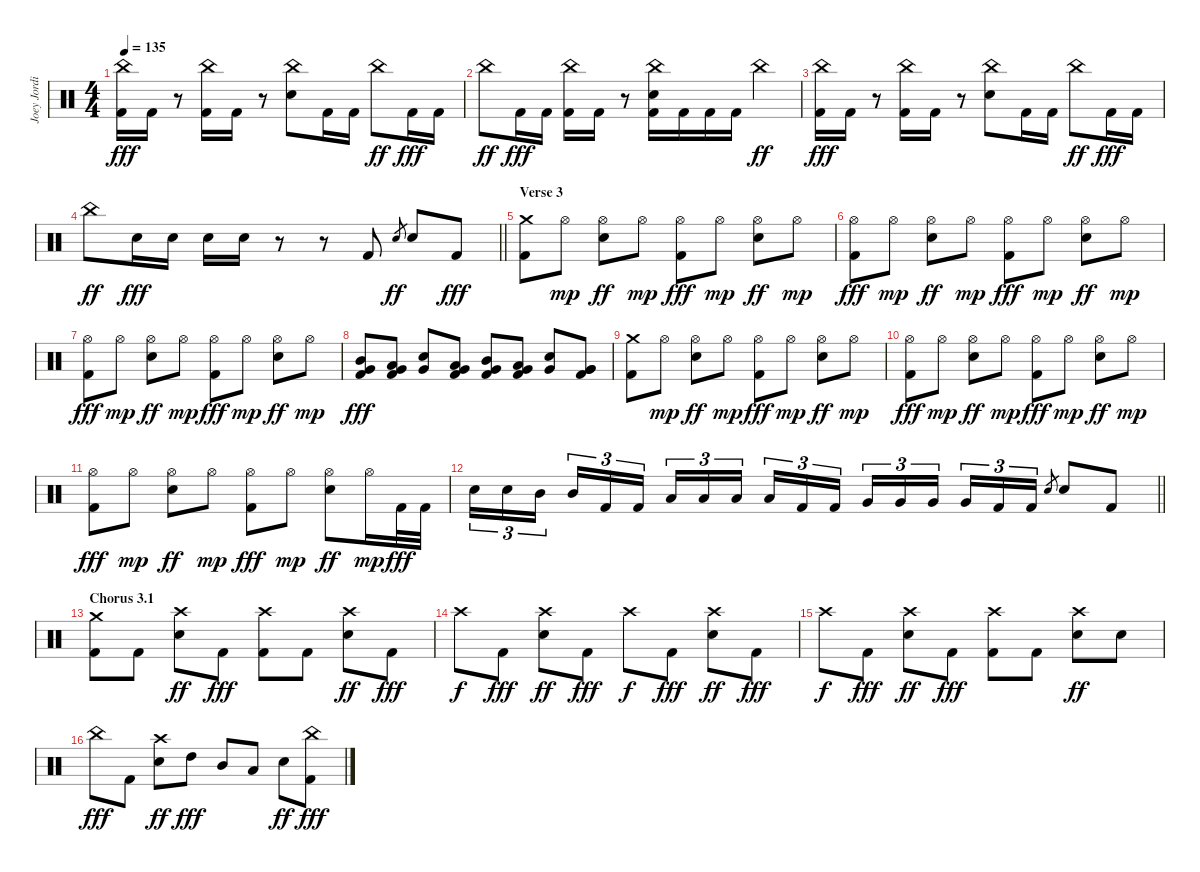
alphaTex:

\track ("Joey Jordison" "Joey Jordi") {instrument percussion}
\staff {score}
\articulation defaults
\ts (4 4)
\tempo 135
\clef neutral
\ks c
("China (hit)" "Kick (hit) 2").16{dy fff} "Kick (hit) 2".16 r.8 ("China (hit)" "Kick (hit) 2").16 "Kick (hit) 2".16 r.8 ("China (hit)" "Electric Snare (hit)").8 "Kick (hit) 2".16 "Kick (hit) 2".16 "China (hit)".8{dy ff} "Kick (hit) 2".16{dy fff} "Kick (hit) 2".16 |
"China (hit)".8{dy ff} "Kick (hit) 2".16{dy fff} "Kick (hit) 2".16 ("China (hit)" "Kick (hit) 2").16 "Kick (hit) 2".16 r.8 ("China (hit)" "Electric Snare (hit)" "Kick (hit) 2").16 "Kick (hit) 2".16 "Kick (hit) 2".16 "Kick (hit) 2".16 "China (hit)".4{dy ff} |
("China (hit)" "Kick (hit) 2").16{dy fff} "Kick (hit) 2".16 r.8 ("China (hit)" "Kick (hit) 2").16 "Kick (hit) 2".16 r.8 ("China (hit)" "Electric Snare (hit)").8 "Kick (hit) 2".16 "Kick (hit) 2".16 "China (hit)".8{dy ff} "Kick (hit) 2".16{dy fff} "Kick (hit) 2".16 |
\barLineRight lightlight "China (hit)".8{dy ff} "Electric Snare (hit)".16{dy fff} "Electric Snare (hit)".16 "Electric Snare (hit)".16 "Electric Snare (hit)".16
r.8 r.8 "Kick (hit) 2".8 "Electric Snare (hit)".8{gr dy ff} "Electric Snare (hit)".8 "Kick (hit) 2".8{dy fff} |
\section ("" "Verse 3")
("Crash medium (hit)" "Kick (hit) 2").8 "Hi-Hat (open)".8{dy mp} ("Hi-Hat (open)" "Electric Snare (hit)").8{dy ff} "Hi-Hat (open)".8{dy mp} ("Hi-Hat (open)" "Kick (hit) 2").8{dy fff} "Hi-Hat (open)".8{dy mp} ("Hi-Hat (open)" "Electric Snare (hit)").8{dy ff} "Hi-Hat (open)".8{dy mp} |
("Hi-Hat (open)" "Kick (hit) 2").8{dy fff} "Hi-Hat (open)".8{dy mp} ("Hi-Hat (open)" "Electric Snare (hit)").8{dy ff} "Hi-Hat (open)".8{dy mp} ("Hi-Hat (open)" "Kick (hit) 2").8{dy fff} "Hi-Hat (open)".8{dy mp} ("Hi-Hat (open)" "Electric Snare (hit)").8{dy ff} "Hi-Hat (open)".8{dy mp} |
("Hi-Hat (open)" "Kick (hit) 2").8{dy fff} "Hi-Hat (open)".8{dy mp} ("Hi-Hat (open)" "Electric Snare (hit)").8{dy ff} "Hi-Hat (open)".8{dy mp} ("Hi-Hat (open)" "Kick (hit) 2").8{dy fff} "Hi-Hat (open)".8{dy mp} ("Hi-Hat (open)" "Electric Snare (hit)").8{dy ff} "Hi-Hat (open)".8{dy mp} |
("Mid Tom (hit)" "Very Low Tom (hit)" "Kick (hit) 2").8{dy fff} ("Low Tom (hit)" "Very Low Tom (hit)" "Kick (hit) 2").8 ("Electric Snare (hit)" "Very Low Tom (hit)").8 ("Low Tom (hit)" "Very Low Tom (hit)" "Kick (hit) 2").8 ("Mid Tom (hit)" "Very Low Tom (hit)" "Kick (hit) 2").8 ("Low Tom (hit)" "Very Low Tom (hit)" "Kick (hit) 2").8 ("Electric Snare (hit)" "Very Low Tom (hit)").8 ("Very Low Tom (hit)" "Very Low Tom (hit)" "Kick (hit) 2").8 |
("Crash medium (hit)" "Kick (hit) 2").8 "Hi-Hat (open)".8{dy mp} ("Hi-Hat (open)" "Electric Snare (hit)").8{dy ff} "Hi-Hat (open)".8{dy mp} ("Hi-Hat (open)" "Kick (hit) 2").8{dy fff} "Hi-Hat (open)".8{dy mp} ("Hi-Hat (open)" "Electric Snare (hit)").8{dy ff} "Hi-Hat (open)".8{dy mp} |
("Hi-Hat (open)" "Kick (hit) 2").8{dy fff} "Hi-Hat (open)".8{dy mp} ("Hi-Hat (open)" "Electric Snare (hit)").8{dy ff} "Hi-Hat (open)".8{dy mp} ("Hi-Hat (open)" "Kick (hit) 2").8{dy fff} "Hi-Hat (open)".8{dy mp} ("Hi-Hat (open)" "Electric Snare (hit)").8{dy ff} "Hi-Hat (open)".8{dy mp} |
("Hi-Hat (open)" "Kick (hit) 2").8{dy fff} "Hi-Hat (open)".8{dy mp} ("Hi-Hat (open)" "Electric Snare (hit)").8{dy ff} "Hi-Hat (open)".8{dy mp} ("Hi-Hat (open)" "Kick (hit) 2").8{dy fff} "Hi-Hat (open)".8{dy mp} ("Hi-Hat (open)" "Electric Snare (hit)").8{dy ff} "Hi-Hat (open)".16{dy mp} "Kick (hit) 2".32{dy fff} "Kick (hit) 2".32 |
\barLineRight lightlight "Electric Snare (hit)".16{tu (3 2)} "Electric Snare (hit)".16{tu (3 2)} "Mid Tom (hit)".16{tu (3 2) beam splitsecondary} "Mid Tom (hit)".16{tu (3 2)} "Kick (hit) 2".16{tu (3 2)} "Kick (hit) 2".16{tu (3 2)} "Low Tom (hit)".16{tu (3 2)} "Low Tom (hit)".16{tu (3 2)} "Low Tom (hit)".16{tu (3 2) beam splitsecondary} "Low Tom (hit)".16{tu (3 2)} "Kick (hit) 2".16{tu (3 2)} "Kick (hit) 2".16{tu (3 2)} "Very Low Tom (hit)".16{tu (3 2)} "Very Low Tom (hit)".16{tu (3 2)} "Very Low Tom (hit)".16{tu (3 2) beam splitsecondary} "Very Low Tom (hit)".16{tu (3 2)} "Kick (hit) 2".16{tu (3 2)} "Kick (hit) 2".16{tu (3 2)} "Electric Snare (hit)".8{gr} "Electric Snare (hit)".8 "Kick (hit) 2".8
|
\section ("" "Chorus 3.1")
("Crash medium (hit)" "Kick (hit) 2").8 "Kick (hit) 2".8 ("Crash high (hit)" "Electric Snare (hit)").8{dy ff} "Kick (hit) 2".8{dy fff} ("Crash high (hit)" "Kick (hit) 2").8 "Kick (hit) 2".8 ("Crash high (hit)" "Electric Snare (hit)").8{dy ff} "Kick (hit) 2".8{dy fff} |
"Crash high (hit)".8{dy f} "Kick (hit) 2".8{dy fff} ("Crash high (hit)" "Electric Snare (hit)").8{dy ff} "Kick (hit) 2".8{dy fff} "Crash high (hit)".8{dy f} "Kick (hit) 2".8{dy fff} ("Crash high (hit)" "Electric Snare (hit)").8{dy ff} "Kick (hit) 2".8{dy fff} |
"Crash high (hit)".8{dy f} "Kick (hit) 2".8{dy fff} ("Crash high (hit)" "Electric Snare (hit)").8{dy ff} "Kick (hit) 2".8{dy fff} ("Crash high (hit)" "Kick (hit) 2").8 "Kick (hit) 2".8 ("Crash high (hit)" "Electric Snare (hit)").8{dy ff} "Electric Snare (hit)".8 |
"China (hit)".8{dy fff} "Kick (hit) 2".8 ("Crash high (hit)" "Electric Snare (hit)").8{dy ff} "High Tom (hit)".8{dy fff} "Mid Tom (hit)".8 "Low Tom (hit)".8 "Electric Snare (hit)".8{dy ff} ("China (hit)" "Kick (hit) 2").8{dy fff}
